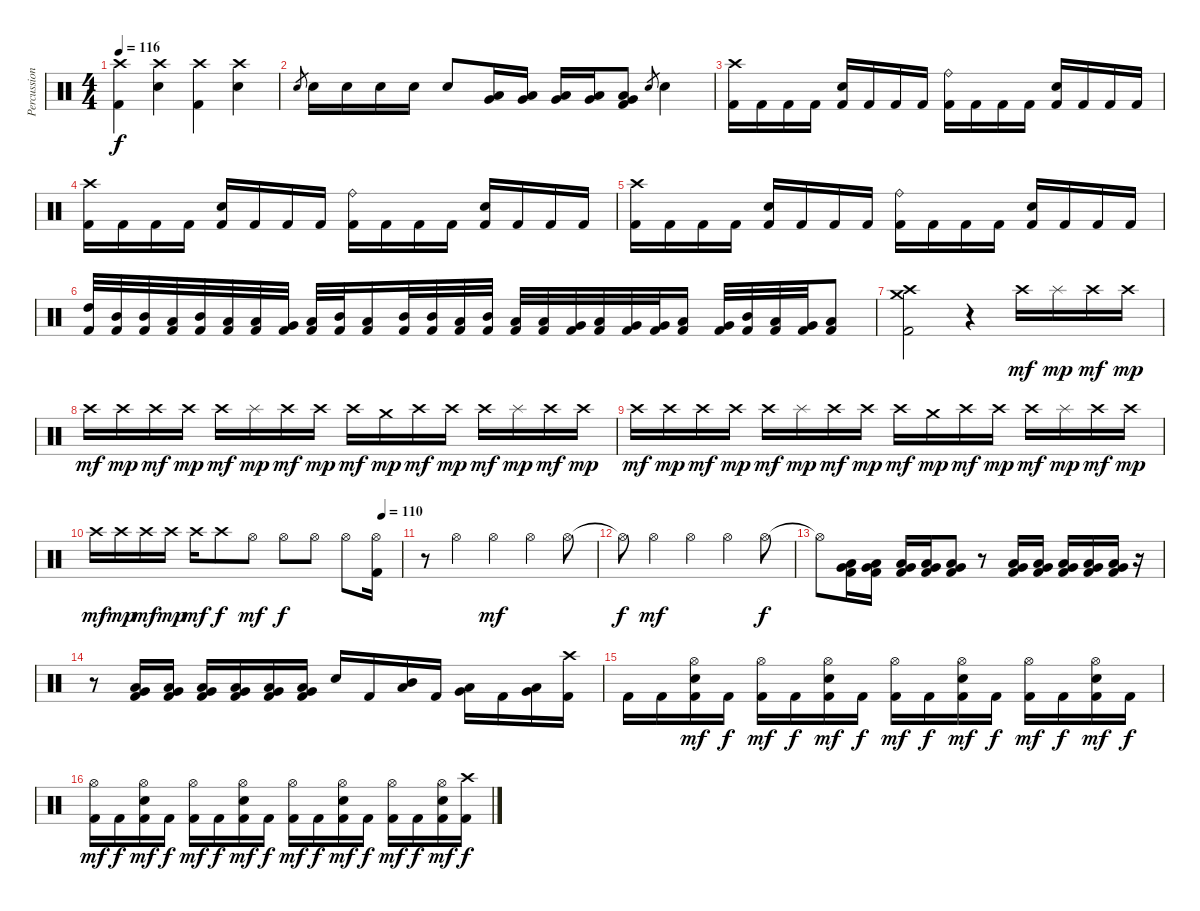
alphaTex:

\track ("Percussion (Moose)" "Percussion") {instrument percussion}
\staff {score}
\articulation defaults
\ts (4 4)
\tempo 116
\clef neutral
\ks c
("Kick (hit) 2" "Crash high (hit)").4{dy f} ("Snare (hit) 2" "Crash high (hit)").4 ("Kick (hit) 2" "Crash high (hit)").4 ("Snare (hit) 2" "Crash high (hit)").4 |
"Snare (hit) 2".8{gr} "Snare (hit) 2".16 "Snare (hit) 2".16 "Snare (hit) 2".16 "Snare (hit) 2".16 "Snare (hit) 2".8 ("Low Tom (hit)" "Very Low Tom (hit)").16 ("Low Tom (hit)" "Very Low Tom (hit)").16 ("Low Tom (hit)" "Very Low Tom (hit)").16 ("Low Tom (hit)" "Very Low Tom (hit)").16 ("Kick (hit) 2" "Very Low Tom (hit)" "Low Floor Tom (hit)").8 "Snare (hit) 2".8{gr} "Snare (hit) 2".4 |
("Kick (hit) 2" "Crash high (hit)").16 "Kick (hit) 2".16 "Kick (hit) 2".16 "Kick (hit) 2".16 ("Kick (hit) 2" "Snare (hit) 2").16 "Kick (hit) 2".16 "Kick (hit) 2".16 "Kick (hit) 2".16 ("Kick (hit) 2" "Ride (bell)").16 "Kick (hit) 2".16 "Kick (hit) 2".16 "Kick (hit) 2".16 ("Kick (hit) 2" "Snare (hit) 2").16 "Kick (hit) 2".16 "Kick (hit) 2".16 "Kick (hit) 2".16 |
("Kick (hit) 2" "Crash high (hit)").16 "Kick (hit) 2".16 "Kick (hit) 2".16 "Kick (hit) 2".16 ("Kick (hit) 2" "Snare (hit) 2").16 "Kick (hit) 2".16 "Kick (hit) 2".16 "Kick (hit) 2".16 ("Kick (hit) 2" "Ride (bell)").16 "Kick (hit) 2".16 "Kick (hit) 2".16 "Kick (hit) 2".16 ("Kick (hit) 2" "Snare (hit) 2").16 "Kick (hit) 2".16 "Kick (hit) 2".16 "Kick (hit) 2".16 |
("Kick (hit) 2" "Crash high (hit)").16 "Kick (hit) 2".16 "Kick (hit) 2".16 "Kick (hit) 2".16 ("Kick (hit) 2" "Snare (hit) 2").16 "Kick (hit) 2".16 "Kick (hit) 2".16 "Kick (hit) 2".16 ("Kick (hit) 2" "Ride (bell)").16 "Kick (hit) 2".16 "Kick (hit) 2".16 "Kick (hit) 2".16 ("Kick (hit) 2" "Snare (hit) 2").16 "Kick (hit) 2".16 "Kick (hit) 2".16 "Kick (hit) 2".16 |
("Kick (hit) 2" "High Tom (hit)").32 ("Kick (hit) 2" "Mid Tom (hit)").32 ("Kick (hit) 2" "Mid Tom (hit)").32 ("Kick (hit) 2" "Low Tom (hit)").32 ("Kick (hit) 2" "Mid Tom (hit)").32 ("Kick (hit) 2" "Low Tom (hit)").32 ("Kick (hit) 2" "Low Tom (hit)").32 ("Kick (hit) 2" "Very Low Tom (hit)").32 ("Kick (hit) 2" "Low Tom (hit)").32 ("Kick (hit) 2" "Mid Tom (hit)").32 ("Kick (hit) 2" "Low Tom (hit)").16 ("Kick (hit) 2" "Mid Tom (hit)").32 ("Kick (hit) 2" "Mid Tom (hit)").32 ("Kick (hit) 2" "Low Tom (hit)").32 ("Kick (hit) 2" "Mid Tom (hit)").32 ("Kick (hit) 2" "Low Tom (hit)").32 ("Kick (hit) 2" "Low Tom (hit)").32 ("Kick (hit) 2" "Very Low Tom (hit)").32 ("Kick (hit) 2" "Low Tom (hit)").32 ("Kick (hit) 2" "Very Low Tom (hit)").32 ("Kick (hit) 2" "Very Low Tom (hit)").32 ("Kick (hit) 2" "Low Floor Tom (hit)").16 ("Kick (hit) 2" "Very Low Tom (hit)").32 ("Kick (hit) 2" "Mid Tom (hit)").32 ("Kick (hit) 2" "Low Tom (hit)").32 ("Kick (hit) 2" "Very Low Tom (hit)").32 ("Kick (hit) 2" "Low Floor Tom (hit)").8 |
("Kick (hit) 2" "Crash high (hit)" "Crash medium (hit)").2 r.4 "Crash high (hit)".16{dy mf} "Splash (hit)".16{dy mp} "Crash high (hit)".16{dy mf} "Crash high (hit)".16{dy mp} |
"Crash high (hit)".16{dy mf} "Crash high (hit)".16{dy mp} "Crash high (hit)".16{dy mf} "Crash high (hit)".16{dy mp} "Crash high (hit)".16{dy mf} "Splash (hit)".16{dy mp} "Crash high (hit)".16{dy mf} "Crash high (hit)".16{dy mp} "Crash high (hit)".16{dy mf} "Crash medium (hit)".16{dy mp} "Crash high (hit)".16{dy mf} "Crash high (hit)".16{dy mp} "Crash high (hit)".16{dy mf} "Splash (hit)".16{dy mp} "Crash high (hit)".16{dy mf} "Crash high (hit)".16{dy mp} |
"Crash high (hit)".16{dy mf} "Crash high (hit)".16{dy mp} "Crash high (hit)".16{dy mf} "Crash high (hit)".16{dy mp} "Crash high (hit)".16{dy mf} "Splash (hit)".16{dy mp} "Crash high (hit)".16{dy mf} "Crash high (hit)".16{dy mp} "Crash high (hit)".16{dy mf} "Crash medium (hit)".16{dy mp} "Crash high (hit)".16{dy mf} "Crash high (hit)".16{dy mp} "Crash high (hit)".16{dy mf} "Splash (hit)".16{dy mp} "Crash high (hit)".16{dy mf} "Crash high (hit)".16{dy mp} |
\tempo (110 0.9375)
"Crash high (hit)".16{dy mf} "Crash high (hit)".16{dy mp} "Crash high (hit)".16{dy mf} "Crash high (hit)".16{dy mp} "Crash high (hit)".16{dy mf} "Crash high (hit)".8{dy f} "Hi-Hat (open)".8{dy mf} "Hi-Hat (open)".8{dy f} "Hi-Hat (open)".8 "Hi-Hat (open)".8 ("Kick (hit) 2" "Hi-Hat (open)").16 |
r.8 "Hi-Hat (open)".4 "Hi-Hat (open)".4{dy mf} "Hi-Hat (open)".4 "Hi-Hat (open)".8 |
"Hi-Hat (open)"{t}.8{dy f} "Hi-Hat (open)".4{dy mf} "Hi-Hat (open)".4 "Hi-Hat (open)".4 "Hi-Hat (open)".8{dy f} |
"Hi-Hat (open)"{t}.8 ("Kick (hit) 2" "Low Floor Tom (hit)" "Very Low Tom (hit)").16 ("Kick (hit) 2" "Low Floor Tom (hit)" "Very Low Tom (hit)").16 ("Kick (hit) 2" "Low Floor Tom (hit)" "Very Low Tom (hit)").16 ("Kick (hit) 2" "Low Floor Tom (hit)" "Very Low Tom (hit)").16 ("Kick (hit) 2" "Low Floor Tom (hit)" "Very Low Tom (hit)").8 r.8 ("Kick (hit) 2" "Very Low Tom (hit)" "Low Tom (hit)").16 ("Kick (hit) 2" "Very Low Tom (hit)" "Low Tom (hit)").16 ("Kick (hit) 2" "Very Low Tom (hit)" "Low Tom (hit)").16 ("Kick (hit) 2" "Very Low Tom (hit)" "Low Tom (hit)").16 ("Kick (hit) 2" "Very Low Tom (hit)" "Low Tom (hit)").16 r.16 |
r.8 ("Kick (hit) 2" "Low Floor Tom (hit)" "Very Low Tom (hit)").16 ("Kick (hit) 2" "Low Floor Tom (hit)" "Very Low Tom (hit)").16 ("Kick (hit) 2" "Low Floor Tom (hit)" "Very Low Tom (hit)").16 ("Kick (hit) 2" "Low Floor Tom (hit)" "Very Low Tom (hit)").16 ("Kick (hit) 2" "Low Floor Tom (hit)" "Very Low Tom (hit)").16 ("Kick (hit) 2" "Low Floor Tom (hit)" "Very Low Tom (hit)").16 "Snare (hit) 2".16 "Kick (hit) 2".16 ("Low Tom (hit)" "Mid Tom (hit)").16 "Kick (hit) 2".16 ("Very Low Tom (hit)" "Low Tom (hit)").16 "Kick (hit) 2".16 ("Low Floor Tom (hit)" "Very Low Tom (hit)").16 ("Kick (hit) 2" "Crash high (hit)").16 |
"Kick (hit) 2".16 "Kick (hit) 2".16 ("Kick (hit) 2" "Snare (hit) 2" "Hi-Hat (open)").16{dy mf} "Kick (hit) 2".16{dy f} ("Kick (hit) 2" "Hi-Hat (open)").16{dy mf} "Kick (hit) 2".16{dy f} ("Kick (hit) 2" "Snare (hit) 2" "Hi-Hat (open)").16{dy mf} "Kick (hit) 2".16{dy f} ("Kick (hit) 2" "Hi-Hat (open)").16{dy mf} "Kick (hit) 2".16{dy f} ("Kick (hit) 2" "Snare (hit) 2" "Hi-Hat (open)").16{dy mf} "Kick (hit) 2".16{dy f} ("Kick (hit) 2" "Hi-Hat (open)").16{dy mf} "Kick (hit) 2".16{dy f} ("Kick (hit) 2" "Snare (hit) 2" "Hi-Hat (open)").16{dy mf} "Kick (hit) 2".16{dy f} |
("Kick (hit) 2" "Hi-Hat (open)").16{dy mf} "Kick (hit) 2".16{dy f} ("Kick (hit) 2" "Snare (hit) 2" "Hi-Hat (open)").16{dy mf} "Kick (hit) 2".16{dy f} ("Kick (hit) 2" "Hi-Hat (open)").16{dy mf} "Kick (hit) 2".16{dy f} ("Kick (hit) 2" "Snare (hit) 2" "Hi-Hat (open)").16{dy mf} "Kick (hit) 2".16{dy f} ("Kick (hit) 2" "Hi-Hat (open)").16{dy mf} "Kick (hit) 2".16{dy f} ("Kick (hit) 2" "Snare (hit) 2" "Hi-Hat (open)").16{dy mf} "Kick (hit) 2".16{dy f} ("Kick (hit) 2" "Hi-Hat (open)").16{dy mf} "Kick (hit) 2".16{dy f} ("Kick (hit) 2" "Snare (hit) 2" "Hi-Hat (open)").16{dy mf} ("Kick (hit) 2" "Crash high (hit)").16{dy f}
